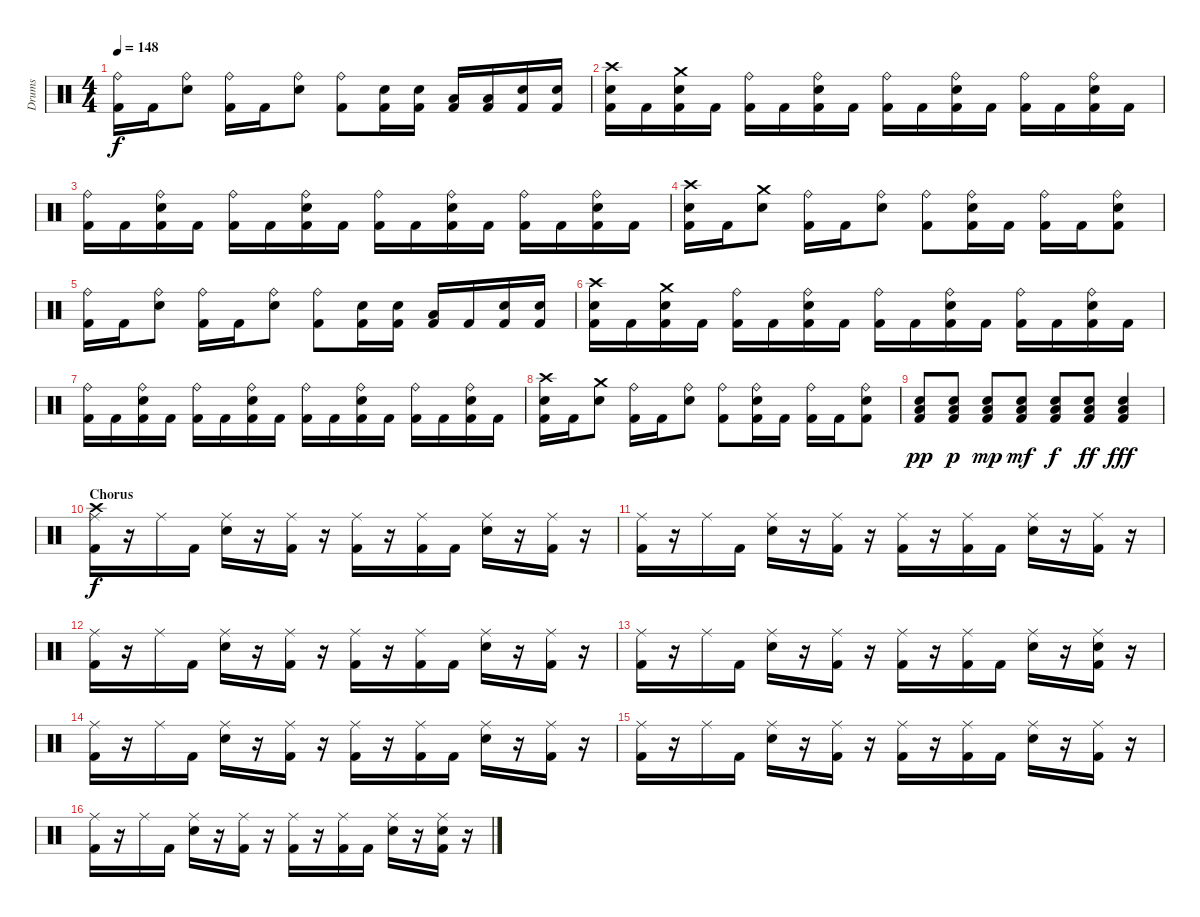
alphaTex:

\track ("Drums" "Drums") {instrument percussion}
\staff {score}
\articulation defaults
\ts (4 4)
\tempo 148
\clef neutral
\ks c
("Kick (hit) 2" "Ride (bell)").16{dy f} "Kick (hit) 2".16 ("Electric Snare (hit)" "Ride (bell)").8 ("Kick (hit) 2" "Ride (bell)").16 "Kick (hit) 2".16 ("Electric Snare (hit)" "Ride (bell)").8 ("Kick (hit) 2" "Ride (bell)").8 ("Kick (hit) 2" "Electric Snare (hit)").16 ("Kick (hit) 2" "Electric Snare (hit)").16 ("Kick (hit) 2" "Low Tom (hit)").16 ("Kick (hit) 2" "Low Tom (hit)").16 ("Kick (hit) 2" "Electric Snare (hit)").16 ("Kick (hit) 2" "Electric Snare (hit)").16 |
("Kick (hit) 2" "Electric Snare (hit)" "Crash high (hit)").16 "Kick (hit) 2".16 ("Kick (hit) 2" "Electric Snare (hit)" "Crash medium (hit)").16 "Kick (hit) 2".16 ("Kick (hit) 2" "Ride (bell)").16 "Kick (hit) 2".16 ("Kick (hit) 2" "Electric Snare (hit)" "Ride (bell)").16 "Kick (hit) 2".16 ("Kick (hit) 2" "Ride (bell)").16 "Kick (hit) 2".16 ("Kick (hit) 2" "Electric Snare (hit)" "Ride (bell)").16 "Kick (hit) 2".16 ("Kick (hit) 2" "Ride (bell)").16 "Kick (hit) 2".16 ("Kick (hit) 2" "Electric Snare (hit)" "Ride (bell)").16 "Kick (hit) 2".16 |
("Kick (hit) 2" "Ride (bell)").16 "Kick (hit) 2".16 ("Kick (hit) 2" "Electric Snare (hit)" "Ride (bell)").16 "Kick (hit) 2".16 ("Kick (hit) 2" "Ride (bell)").16 "Kick (hit) 2".16 ("Kick (hit) 2" "Electric Snare (hit)" "Ride (bell)").16 "Kick (hit) 2".16 ("Kick (hit) 2" "Ride (bell)").16 "Kick (hit) 2".16 ("Kick (hit) 2" "Electric Snare (hit)" "Ride (bell)").16 "Kick (hit) 2".16 ("Kick (hit) 2" "Ride (bell)").16 "Kick (hit) 2".16 ("Kick (hit) 2" "Electric Snare (hit)" "Ride (bell)").16 "Kick (hit) 2".16 |
("Kick (hit) 2" "Electric Snare (hit)" "Crash high (hit)").16 "Kick (hit) 2".16 ("Electric Snare (hit)" "Crash medium (hit)").8 ("Kick (hit) 2" "Ride (bell)").16 "Kick (hit) 2".16 ("Electric Snare (hit)" "Ride (bell)").8 ("Kick (hit) 2" "Ride (bell)").8 ("Kick (hit) 2" "Electric Snare (hit)" "Ride (bell)").16 "Kick (hit) 2".16 ("Kick (hit) 2" "Ride (bell)").16 "Kick (hit) 2".16 ("Kick (hit) 2" "Electric Snare (hit)" "Ride (bell)").8 |
("Kick (hit) 2" "Ride (bell)").16 "Kick (hit) 2".16 ("Electric Snare (hit)" "Ride (bell)").8 ("Kick (hit) 2" "Ride (bell)").16 "Kick (hit) 2".16 ("Electric Snare (hit)" "Ride (bell)").8 ("Kick (hit) 2" "Ride (bell)").8 ("Kick (hit) 2" "Electric Snare (hit)").16 ("Kick (hit) 2" "Electric Snare (hit)").16 ("Kick (hit) 2" "Low Tom (hit)").16 "Kick (hit) 2".16 ("Kick (hit) 2" "Electric Snare (hit)").16 ("Kick (hit) 2" "Electric Snare (hit)").16 |
("Kick (hit) 2" "Electric Snare (hit)" "Crash high (hit)").16 "Kick (hit) 2".16 ("Kick (hit) 2" "Electric Snare (hit)" "Crash medium (hit)").16 "Kick (hit) 2".16 ("Kick (hit) 2" "Ride (bell)").16 "Kick (hit) 2".16 ("Kick (hit) 2" "Electric Snare (hit)" "Ride (bell)").16 "Kick (hit) 2".16 ("Kick (hit) 2" "Ride (bell)").16 "Kick (hit) 2".16 ("Kick (hit) 2" "Electric Snare (hit)" "Ride (bell)").16 "Kick (hit) 2".16 ("Kick (hit) 2" "Ride (bell)").16 "Kick (hit) 2".16 ("Kick (hit) 2" "Electric Snare (hit)" "Ride (bell)").16 "Kick (hit) 2".16 |
("Kick (hit) 2" "Ride (bell)").16 "Kick (hit) 2".16 ("Kick (hit) 2" "Electric Snare (hit)" "Ride (bell)").16 "Kick (hit) 2".16 ("Kick (hit) 2" "Ride (bell)").16 "Kick (hit) 2".16 ("Kick (hit) 2" "Electric Snare (hit)" "Ride (bell)").16 "Kick (hit) 2".16 ("Kick (hit) 2" "Ride (bell)").16 "Kick (hit) 2".16 ("Kick (hit) 2" "Electric Snare (hit)" "Ride (bell)").16 "Kick (hit) 2".16 ("Kick (hit) 2" "Ride (bell)").16 "Kick (hit) 2".16 ("Kick (hit) 2" "Electric Snare (hit)" "Ride (bell)").16 "Kick (hit) 2".16 |
("Kick (hit) 2" "Electric Snare (hit)" "Crash high (hit)").16 "Kick (hit) 2".16 ("Electric Snare (hit)" "Crash medium (hit)").8 ("Kick (hit) 2" "Ride (bell)").16 "Kick (hit) 2".16 ("Electric Snare (hit)" "Ride (bell)").8 ("Kick (hit) 2" "Ride (bell)").8 ("Kick (hit) 2" "Electric Snare (hit)" "Ride (bell)").16 "Kick (hit) 2".16 ("Kick (hit) 2" "Ride (bell)").16 "Kick (hit) 2".16 ("Kick (hit) 2" "Electric Snare (hit)" "Ride (bell)").8 |
("Kick (hit) 2" "Electric Snare (hit)" "Low Floor Tom (hit)").8{dy pp} ("Kick (hit) 2" "Electric Snare (hit)" "Low Floor Tom (hit)").8{dy p} ("Kick (hit) 2" "Electric Snare (hit)" "Low Floor Tom (hit)").8{dy mp} ("Kick (hit) 2" "Electric Snare (hit)" "Low Floor Tom (hit)").8{dy mf} ("Kick (hit) 2" "Electric Snare (hit)" "Low Floor Tom (hit)").8{dy f} ("Kick (hit) 2" "Electric Snare (hit)" "Low Floor Tom (hit)").8{dy ff} ("Kick (hit) 2" "Electric Snare (hit)" "Low Floor Tom (hit)").4{dy fff} |
\section ("" "Chorus")
("Kick (hit) 2" "Ride (middle)" "Crash high (hit)").16{dy f} r.16 "Ride (middle)".16 "Kick (hit) 2".16 ("Electric Snare (hit)" "Ride (middle)").16 r.16 ("Kick (hit) 2" "Ride (middle)").16 r.16 ("Kick (hit) 2" "Ride (middle)").16 r.16 ("Kick (hit) 2" "Ride (middle)").16 "Kick (hit) 2".16 ("Electric Snare (hit)" "Ride (middle)").16 r.16 ("Kick (hit) 2" "Ride (middle)").16 r.16 |
("Kick (hit) 2" "Ride (middle)").16 r.16 "Ride (middle)".16 "Kick (hit) 2".16 ("Electric Snare (hit)" "Ride (middle)").16 r.16 ("Kick (hit) 2" "Ride (middle)").16 r.16 ("Kick (hit) 2" "Ride (middle)").16 r.16 ("Kick (hit) 2" "Ride (middle)").16 "Kick (hit) 2".16 ("Electric Snare (hit)" "Ride (middle)").16 r.16 ("Kick (hit) 2" "Ride (middle)").16 r.16 |
("Kick (hit) 2" "Ride (middle)").16 r.16 "Ride (middle)".16 "Kick (hit) 2".16 ("Electric Snare (hit)" "Ride (middle)").16 r.16 ("Kick (hit) 2" "Ride (middle)").16 r.16 ("Kick (hit) 2" "Ride (middle)").16 r.16 ("Kick (hit) 2" "Ride (middle)").16 "Kick (hit) 2".16 ("Electric Snare (hit)" "Ride (middle)").16 r.16 ("Kick (hit) 2" "Ride (middle)").16 r.16 |
("Kick (hit) 2" "Ride (middle)").16 r.16 "Ride (middle)".16 "Kick (hit) 2".16 ("Electric Snare (hit)" "Ride (middle)").16 r.16 ("Kick (hit) 2" "Ride (middle)").16 r.16 ("Kick (hit) 2" "Ride (middle)").16 r.16 ("Kick (hit) 2" "Ride (middle)").16 "Kick (hit) 2".16 ("Electric Snare (hit)" "Ride (middle)").16 r.16 ("Kick (hit) 2" "Electric Snare (hit)" "Ride (middle)").16 r.16 |
("Kick (hit) 2" "Ride (middle)").16 r.16 "Ride (middle)".16 "Kick (hit) 2".16 ("Electric Snare (hit)" "Ride (middle)").16 r.16 ("Kick (hit) 2" "Ride (middle)").16 r.16 ("Kick (hit) 2" "Ride (middle)").16 r.16 ("Kick (hit) 2" "Ride (middle)").16 "Kick (hit) 2".16 ("Electric Snare (hit)" "Ride (middle)").16 r.16 ("Kick (hit) 2" "Ride (middle)").16 r.16 |
("Kick (hit) 2" "Ride (middle)").16 r.16 "Ride (middle)".16 "Kick (hit) 2".16 ("Electric Snare (hit)" "Ride (middle)").16 r.16 ("Kick (hit) 2" "Ride (middle)").16 r.16 ("Kick (hit) 2" "Ride (middle)").16 r.16 ("Kick (hit) 2" "Ride (middle)").16 "Kick (hit) 2".16 ("Electric Snare (hit)" "Ride (middle)").16 r.16 ("Kick (hit) 2" "Ride (middle)").16 r.16 |
("Kick (hit) 2" "Ride (middle)").16 r.16 "Ride (middle)".16 "Kick (hit) 2".16 ("Electric Snare (hit)" "Ride (middle)").16 r.16 ("Kick (hit) 2" "Ride (middle)").16 r.16 ("Kick (hit) 2" "Ride (middle)").16 r.16 ("Kick (hit) 2" "Ride (middle)").16 "Kick (hit) 2".16 ("Electric Snare (hit)" "Ride (middle)").16 r.16 ("Kick (hit) 2" "Electric Snare (hit)" "Ride (middle)").16 r.16
